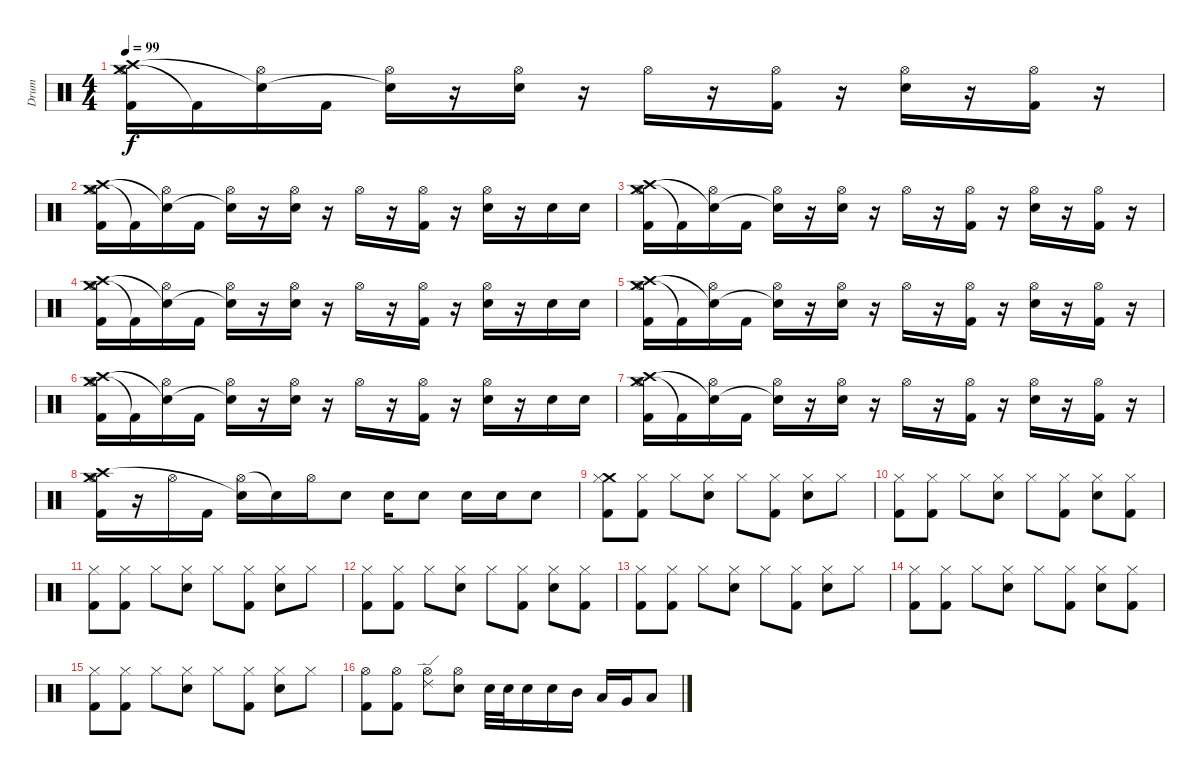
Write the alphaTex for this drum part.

\track ("Drum" "Drum") {instrument percussion}
\staff {score}
\articulation defaults
\ts (4 4)
\tempo 99
\clef neutral
\ks c
("Crash medium (hit)" "Crash high (hit)" "Hi-Hat (open)" "Kick (hit) 2").16{dy f} "Kick (hit) 2"{t}.16 ("Hi-Hat (open)" "Snare (hit)"{t}).16 "Kick (hit) 2".16 ("Hi-Hat (open)" "Snare (hit)"{t}).16 r.16 ("Hi-Hat (open)" "Electric Snare (hit)").16 r.16 "Hi-Hat (open)".16 r.16 ("Hi-Hat (open)" "Kick (hit) 2").16 r.16 ("Hi-Hat (open)" "Electric Snare (hit)").16 r.16 ("Hi-Hat (open)" "Kick (hit) 2").16 r.16 |
("Crash medium (hit)" "Crash high (hit)" "Hi-Hat (open)" "Kick (hit) 2").16 "Kick (hit) 2"{t}.16 ("Hi-Hat (open)" "Snare (hit)"{t}).16 "Kick (hit) 2".16 ("Hi-Hat (open)" "Snare (hit)"{t}).16 r.16 ("Hi-Hat (open)" "Electric Snare (hit)").16 r.16 "Hi-Hat (open)".16 r.16 ("Hi-Hat (open)" "Kick (hit) 2").16 r.16 ("Hi-Hat (open)" "Electric Snare (hit)").16 r.16 "Electric Snare (hit)".16 "Electric Snare (hit)".16 |
("Crash medium (hit)" "Crash high (hit)" "Hi-Hat (open)" "Kick (hit) 2").16 "Kick (hit) 2"{t}.16 ("Hi-Hat (open)" "Snare (hit)"{t}).16 "Kick (hit) 2".16 ("Hi-Hat (open)" "Snare (hit)"{t}).16 r.16 ("Hi-Hat (open)" "Electric Snare (hit)").16 r.16 "Hi-Hat (open)".16 r.16 ("Hi-Hat (open)" "Kick (hit) 2").16 r.16 ("Hi-Hat (open)" "Electric Snare (hit)").16 r.16 ("Hi-Hat (open)" "Kick (hit) 2").16 r.16 |
("Crash medium (hit)" "Crash high (hit)" "Hi-Hat (open)" "Kick (hit) 2").16 "Kick (hit) 2"{t}.16 ("Hi-Hat (open)" "Snare (hit)"{t}).16 "Kick (hit) 2".16 ("Hi-Hat (open)" "Snare (hit)"{t}).16 r.16 ("Hi-Hat (open)" "Electric Snare (hit)").16 r.16 "Hi-Hat (open)".16 r.16 ("Hi-Hat (open)" "Kick (hit) 2").16 r.16 ("Hi-Hat (open)" "Electric Snare (hit)").16 r.16 "Electric Snare (hit)".16 "Electric Snare (hit)".16 |
("Crash medium (hit)" "Crash high (hit)" "Hi-Hat (open)" "Kick (hit) 2").16 "Kick (hit) 2"{t}.16 ("Hi-Hat (open)" "Snare (hit)"{t}).16 "Kick (hit) 2".16 ("Hi-Hat (open)" "Snare (hit)"{t}).16 r.16 ("Hi-Hat (open)" "Electric Snare (hit)").16 r.16 "Hi-Hat (open)".16 r.16 ("Hi-Hat (open)" "Kick (hit) 2").16 r.16 ("Hi-Hat (open)" "Electric Snare (hit)").16 r.16 ("Hi-Hat (open)" "Kick (hit) 2").16 r.16 |
("Crash medium (hit)" "Crash high (hit)" "Hi-Hat (open)" "Kick (hit) 2").16 "Kick (hit) 2"{t}.16 ("Hi-Hat (open)" "Snare (hit)"{t}).16 "Kick (hit) 2".16 ("Hi-Hat (open)" "Snare (hit)"{t}).16 r.16 ("Hi-Hat (open)" "Electric Snare (hit)").16 r.16 "Hi-Hat (open)".16 r.16 ("Hi-Hat (open)" "Kick (hit) 2").16 r.16 ("Hi-Hat (open)" "Electric Snare (hit)").16 r.16 "Electric Snare (hit)".16 "Electric Snare (hit)".16 |
("Crash medium (hit)" "Crash high (hit)" "Hi-Hat (open)" "Kick (hit) 2").16 "Kick (hit) 2"{t}.16 ("Hi-Hat (open)" "Snare (hit)"{t}).16 "Kick (hit) 2".16 ("Hi-Hat (open)" "Snare (hit)"{t}).16 r.16 ("Hi-Hat (open)" "Electric Snare (hit)").16 r.16 "Hi-Hat (open)".16 r.16 ("Hi-Hat (open)" "Kick (hit) 2").16 r.16 ("Hi-Hat (open)" "Electric Snare (hit)").16 r.16 ("Hi-Hat (open)" "Kick (hit) 2").16 r.16 |
("Crash medium (hit)" "Crash high (hit)" "Hi-Hat (open)" "Kick (hit) 2").16 r.16 "Hi-Hat (open)".16 "Kick (hit) 2".16 ("Hi-Hat (open)" "Snare (hit)"{t}).16 "Snare (hit)"{t}.16 "Hi-Hat (open)".16 "Electric Snare (hit)".8 "Electric Snare (hit)".16 "Electric Snare (hit)".8 "Electric Snare (hit)".16 "Electric Snare (hit)".16 "Electric Snare (hit)".8 |
("Crash medium (hit)" "Hi-Hat (closed)" "Kick (hit) 2").8 ("Hi-Hat (closed)" "Kick (hit) 2").8 "Hi-Hat (closed)".8 ("Hi-Hat (closed)" "Electric Snare (hit)").8 "Hi-Hat (closed)".8 ("Hi-Hat (closed)" "Kick (hit) 2").8 ("Hi-Hat (closed)" "Electric Snare (hit)").8 "Hi-Hat (closed)".8 |
("Hi-Hat (closed)" "Kick (hit) 2").8 ("Hi-Hat (closed)" "Kick (hit) 2").8 "Hi-Hat (closed)".8 ("Hi-Hat (closed)" "Electric Snare (hit)").8 "Hi-Hat (closed)".8 ("Hi-Hat (closed)" "Kick (hit) 2").8 ("Hi-Hat (closed)" "Electric Snare (hit)").8 ("Hi-Hat (closed)" "Kick (hit) 2").8 |
("Hi-Hat (closed)" "Kick (hit) 2").8 ("Hi-Hat (closed)" "Kick (hit) 2").8 "Hi-Hat (closed)".8 ("Hi-Hat (closed)" "Electric Snare (hit)").8 "Hi-Hat (closed)".8 ("Hi-Hat (closed)" "Kick (hit) 2").8 ("Hi-Hat (closed)" "Electric Snare (hit)").8 "Hi-Hat (closed)".8 |
("Hi-Hat (closed)" "Kick (hit) 2").8 ("Hi-Hat (closed)" "Kick (hit) 2").8 "Hi-Hat (closed)".8 ("Hi-Hat (closed)" "Electric Snare (hit)").8 "Hi-Hat (closed)".8 ("Hi-Hat (closed)" "Kick (hit) 2").8 ("Hi-Hat (closed)" "Electric Snare (hit)").8 ("Hi-Hat (closed)" "Kick (hit) 2").8 |
("Hi-Hat (closed)" "Kick (hit) 2").8 ("Hi-Hat (closed)" "Kick (hit) 2").8 "Hi-Hat (closed)".8 ("Hi-Hat (closed)" "Electric Snare (hit)").8 "Hi-Hat (closed)".8 ("Hi-Hat (closed)" "Kick (hit) 2").8 ("Hi-Hat (closed)" "Electric Snare (hit)").8 "Hi-Hat (closed)".8 |
("Hi-Hat (closed)" "Kick (hit) 2").8 ("Hi-Hat (closed)" "Kick (hit) 2").8 "Hi-Hat (closed)".8 ("Hi-Hat (closed)" "Electric Snare (hit)").8 "Hi-Hat (closed)".8 ("Hi-Hat (closed)" "Kick (hit) 2").8 ("Hi-Hat (closed)" "Electric Snare (hit)").8 ("Hi-Hat (closed)" "Kick (hit) 2").8 |
("Hi-Hat (closed)" "Kick (hit) 2").8 ("Hi-Hat (closed)" "Kick (hit) 2").8 "Hi-Hat (closed)".8 ("Hi-Hat (closed)" "Electric Snare (hit)").8 "Hi-Hat (closed)".8 ("Hi-Hat (closed)" "Kick (hit) 2").8 ("Hi-Hat (closed)" "Electric Snare (hit)").8 "Hi-Hat (closed)".8 |
("Hi-Hat (open)" "Kick (hit) 2").8 ("Hi-Hat (open)" "Kick (hit) 2").8 ("Ride (edge) 2" "Hi-Hat (open)").8 ("Hi-Hat (open)" "Electric Snare (hit)").8 "Electric Snare (hit)".32 "Electric Snare (hit)".32 "Electric Snare (hit)".16 "Electric Snare (hit)".16 "Mid Tom (hit)".16 "Low Tom (hit)".16 "Very Low Tom (hit)".16 "Low Floor Tom (hit)".8
